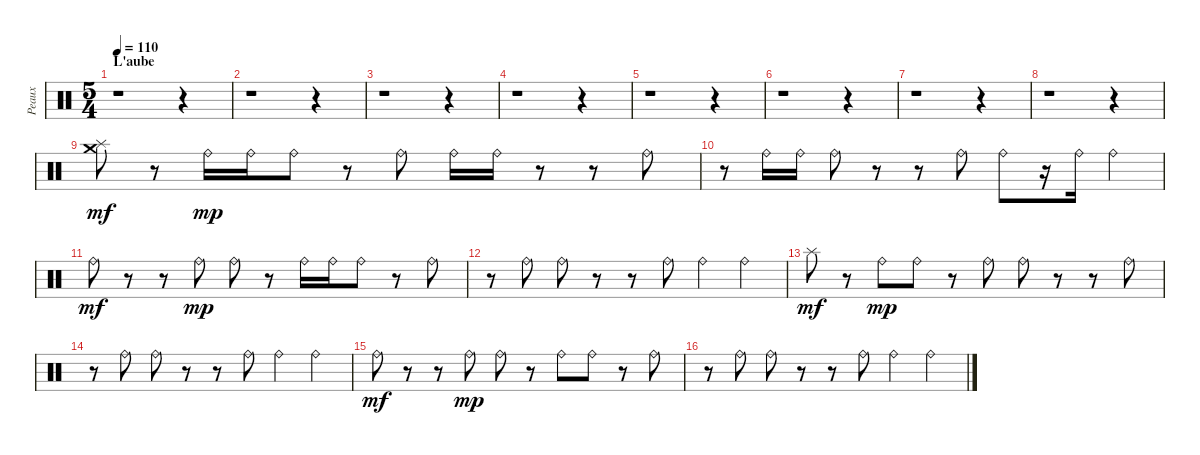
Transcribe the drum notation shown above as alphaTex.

\track ("Peaux" "Peaux") {instrument percussion}
\staff {score}
\articulation defaults
\ts (5 4)
\section ("" "L'aube")
\tempo 110
\clef neutral
\ks c
r.1{dy mf} r.4 |
r.1 r.4 |
r.1 r.4 |
r.1 r.4 |
r.1 r.4 |
r.1 r.4 |
r.1 r.4 |
r.1 r.4 |
("Crash medium (hit)" "Splash (hit)").8 r.8 "Ride (bell)".16{dy mp} "Ride (bell)".16 "Ride (bell)".8 r.8 "Ride (bell)".8 "Ride (bell)".16 "Ride (bell)".16 r.8 r.8 "Ride (bell)".8 |
r.8 "Ride (bell)".16 "Ride (bell)".16 "Ride (bell)".8 r.8 r.8 "Ride (bell)".8 "Ride (bell)".8 r.16 "Ride (bell)".16 "Ride (bell)".4 |
"Ride (bell)".8{dy mf} r.8 r.8 "Ride (bell)".8{dy mp} "Ride (bell)".8 r.8 "Ride (bell)".16 "Ride (bell)".16 "Ride (bell)".8 r.8 "Ride (bell)".8 |
r.8 "Ride (bell)".8 "Ride (bell)".8 r.8 r.8 "Ride (bell)".8 "Ride (bell)".4 "Ride (bell)".4 |
"Splash (hit)".8{dy mf} r.8 "Ride (bell)".8{dy mp} "Ride (bell)".8 r.8 "Ride (bell)".8 "Ride (bell)".8 r.8 r.8 "Ride (bell)".8 |
r.8 "Ride (bell)".8 "Ride (bell)".8 r.8 r.8 "Ride (bell)".8 "Ride (bell)".4 "Ride (bell)".4 |
"Ride (bell)".8{dy mf} r.8 r.8 "Ride (bell)".8{dy mp} "Ride (bell)".8 r.8 "Ride (bell)".8 "Ride (bell)".8 r.8 "Ride (bell)".8 |
r.8 "Ride (bell)".8 "Ride (bell)".8 r.8 r.8 "Ride (bell)".8 "Ride (bell)".4 "Ride (bell)".4
